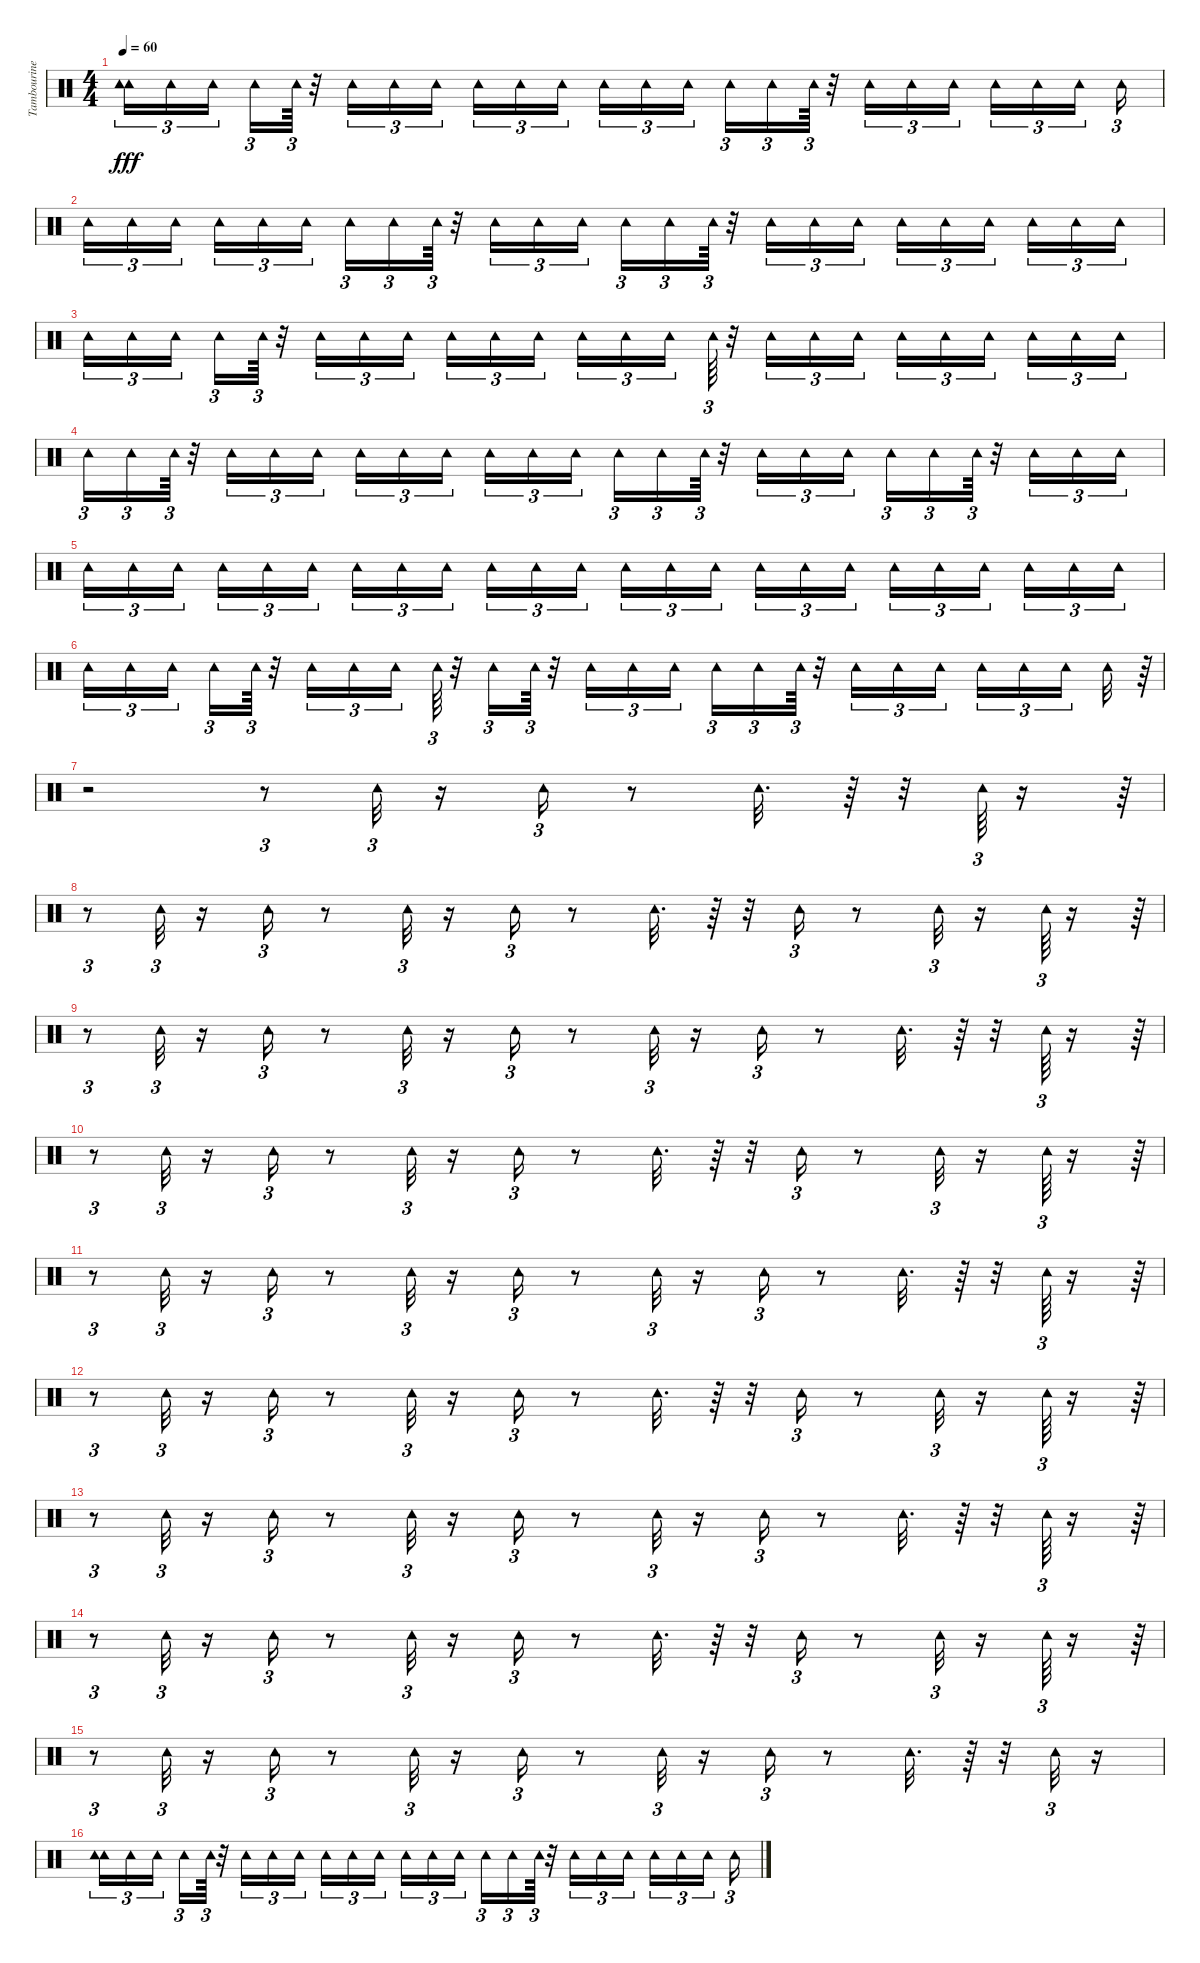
\track ("Tambourine" "Tambourine") {instrument percussion}
\staff {score}
\articulation defaults
\ts (4 4)
\tempo 60
\clef neutral
\ks c
("Tambourine (hit)" "Tambourine (hit)").16{tu (3 2) dy fff} "Tambourine (hit)".16{tu (3 2)} "Tambourine (hit)".16{tu (3 2) beam splitsecondary} "Tambourine (hit)".16{tu (3 2)} "Tambourine (hit)".64{tu (3 2)} r.32 "Tambourine (hit)".16{tu (3 2)} "Tambourine (hit)".16{tu (3 2)} "Tambourine (hit)".16{tu (3 2) beam splitsecondary} "Tambourine (hit)".16{tu (3 2)} "Tambourine (hit)".16{tu (3 2)} "Tambourine (hit)".16{tu (3 2) beam splitsecondary} "Tambourine (hit)".16{tu (3 2)} "Tambourine (hit)".16{tu (3 2)} "Tambourine (hit)".16{tu (3 2) beam splitsecondary} "Tambourine (hit)".16{tu (3 2)} "Tambourine (hit)".16{tu (3 2)} "Tambourine (hit)".64{tu (3 2)} r.32 "Tambourine (hit)".16{tu (3 2)} "Tambourine (hit)".16{tu (3 2)} "Tambourine (hit)".16{tu (3 2) beam splitsecondary} "Tambourine (hit)".16{tu (3 2)} "Tambourine (hit)".16{tu (3 2)} "Tambourine (hit)".16{tu (3 2) beam splitsecondary} "Tambourine (hit)".16{tu (3 2)} |
"Tambourine (hit)".16{tu (3 2)} "Tambourine (hit)".16{tu (3 2)} "Tambourine (hit)".16{tu (3 2) beam splitsecondary} "Tambourine (hit)".16{tu (3 2)} "Tambourine (hit)".16{tu (3 2)} "Tambourine (hit)".16{tu (3 2)} "Tambourine (hit)".16{tu (3 2)} "Tambourine (hit)".16{tu (3 2)} "Tambourine (hit)".64{tu (3 2)} r.32 "Tambourine (hit)".16{tu (3 2)} "Tambourine (hit)".16{tu (3 2)} "Tambourine (hit)".16{tu (3 2)} "Tambourine (hit)".16{tu (3 2)} "Tambourine (hit)".16{tu (3 2)} "Tambourine (hit)".64{tu (3 2)} r.32 "Tambourine (hit)".16{tu (3 2)} "Tambourine (hit)".16{tu (3 2)} "Tambourine (hit)".16{tu (3 2)} "Tambourine (hit)".16{tu (3 2)} "Tambourine (hit)".16{tu (3 2)} "Tambourine (hit)".16{tu (3 2) beam splitsecondary} "Tambourine (hit)".16{tu (3 2)} "Tambourine (hit)".16{tu (3 2)} "Tambourine (hit)".16{tu (3 2)} |
"Tambourine (hit)".16{tu (3 2)} "Tambourine (hit)".16{tu (3 2)} "Tambourine (hit)".16{tu (3 2) beam splitsecondary} "Tambourine (hit)".16{tu (3 2)} "Tambourine (hit)".64{tu (3 2)} r.32 "Tambourine (hit)".16{tu (3 2)} "Tambourine (hit)".16{tu (3 2)} "Tambourine (hit)".16{tu (3 2) beam splitsecondary} "Tambourine (hit)".16{tu (3 2)} "Tambourine (hit)".16{tu (3 2)} "Tambourine (hit)".16{tu (3 2) beam splitsecondary} "Tambourine (hit)".16{tu (3 2)} "Tambourine (hit)".16{tu (3 2)} "Tambourine (hit)".16{tu (3 2) beam splitsecondary} "Tambourine (hit)".64{tu (3 2)} r.32 "Tambourine (hit)".16{tu (3 2)} "Tambourine (hit)".16{tu (3 2)} "Tambourine (hit)".16{tu (3 2)} "Tambourine (hit)".16{tu (3 2)} "Tambourine (hit)".16{tu (3 2)} "Tambourine (hit)".16{tu (3 2) beam splitsecondary} "Tambourine (hit)".16{tu (3 2)} "Tambourine (hit)".16{tu (3 2)} "Tambourine (hit)".16{tu (3 2)} |
"Tambourine (hit)".16{tu (3 2)} "Tambourine (hit)".16{tu (3 2)} "Tambourine (hit)".64{tu (3 2)} r.32 "Tambourine (hit)".16{tu (3 2)} "Tambourine (hit)".16{tu (3 2)} "Tambourine (hit)".16{tu (3 2)} "Tambourine (hit)".16{tu (3 2)} "Tambourine (hit)".16{tu (3 2)} "Tambourine (hit)".16{tu (3 2) beam splitsecondary} "Tambourine (hit)".16{tu (3 2)} "Tambourine (hit)".16{tu (3 2)} "Tambourine (hit)".16{tu (3 2)} "Tambourine (hit)".16{tu (3 2)} "Tambourine (hit)".16{tu (3 2)} "Tambourine (hit)".64{tu (3 2)} r.32 "Tambourine (hit)".16{tu (3 2)} "Tambourine (hit)".16{tu (3 2)} "Tambourine (hit)".16{tu (3 2)} "Tambourine (hit)".16{tu (3 2)} "Tambourine (hit)".16{tu (3 2)} "Tambourine (hit)".64{tu (3 2)} r.32 "Tambourine (hit)".16{tu (3 2)} "Tambourine (hit)".16{tu (3 2)} "Tambourine (hit)".16{tu (3 2)} |
"Tambourine (hit)".16{tu (3 2)} "Tambourine (hit)".16{tu (3 2)} "Tambourine (hit)".16{tu (3 2) beam splitsecondary} "Tambourine (hit)".16{tu (3 2)} "Tambourine (hit)".16{tu (3 2)} "Tambourine (hit)".16{tu (3 2)} "Tambourine (hit)".16{tu (3 2)} "Tambourine (hit)".16{tu (3 2)} "Tambourine (hit)".16{tu (3 2) beam splitsecondary} "Tambourine (hit)".16{tu (3 2)} "Tambourine (hit)".16{tu (3 2)} "Tambourine (hit)".16{tu (3 2)} "Tambourine (hit)".16{tu (3 2)} "Tambourine (hit)".16{tu (3 2)} "Tambourine (hit)".16{tu (3 2) beam splitsecondary} "Tambourine (hit)".16{tu (3 2)} "Tambourine (hit)".16{tu (3 2)} "Tambourine (hit)".16{tu (3 2)} "Tambourine (hit)".16{tu (3 2)} "Tambourine (hit)".16{tu (3 2)} "Tambourine (hit)".16{tu (3 2) beam splitsecondary} "Tambourine (hit)".16{tu (3 2)} "Tambourine (hit)".16{tu (3 2)} "Tambourine (hit)".16{tu (3 2)} |
"Tambourine (hit)".16{tu (3 2)} "Tambourine (hit)".16{tu (3 2)} "Tambourine (hit)".16{tu (3 2) beam splitsecondary} "Tambourine (hit)".16{tu (3 2)} "Tambourine (hit)".64{tu (3 2)} r.32 "Tambourine (hit)".16{tu (3 2)} "Tambourine (hit)".16{tu (3 2)} "Tambourine (hit)".16{tu (3 2) beam splitsecondary} "Tambourine (hit)".64{tu (3 2)} r.32 "Tambourine (hit)".16{tu (3 2)} "Tambourine (hit)".64{tu (3 2)} r.32 "Tambourine (hit)".16{tu (3 2)} "Tambourine (hit)".16{tu (3 2)} "Tambourine (hit)".16{tu (3 2) beam splitsecondary} "Tambourine (hit)".16{tu (3 2)} "Tambourine (hit)".16{tu (3 2)} "Tambourine (hit)".64{tu (3 2)} r.32 "Tambourine (hit)".16{tu (3 2)} "Tambourine (hit)".16{tu (3 2)} "Tambourine (hit)".16{tu (3 2) beam splitsecondary} "Tambourine (hit)".16{tu (3 2)} "Tambourine (hit)".16{tu (3 2)} "Tambourine (hit)".16{tu (3 2) beam splitsecondary} "Tambourine (hit)".32 r.64{tu (3 2)} |
r.2 r.8{tu (3 2)} "Tambourine (hit)".32{tu (3 2)} r.16 "Tambourine (hit)".16{tu (3 2)} r.8 "Tambourine (hit)".32{d} r.64 r.32 "Tambourine (hit)".64{tu (3 2)} r.16 r.64{tu (3 2)} |
r.8{tu (3 2)} "Tambourine (hit)".32{tu (3 2)} r.16 "Tambourine (hit)".16{tu (3 2)} r.8 "Tambourine (hit)".32{tu (3 2)} r.16 "Tambourine (hit)".16{tu (3 2)} r.8 "Tambourine (hit)".32{d} r.64 r.32 "Tambourine (hit)".16{tu (3 2)} r.8 "Tambourine (hit)".32{tu (3 2)} r.16 "Tambourine (hit)".64{tu (3 2)} r.16 r.64{tu (3 2)} |
r.8{tu (3 2)} "Tambourine (hit)".32{tu (3 2)} r.16 "Tambourine (hit)".16{tu (3 2)} r.8 "Tambourine (hit)".32{tu (3 2)} r.16 "Tambourine (hit)".16{tu (3 2)} r.8 "Tambourine (hit)".32{tu (3 2)} r.16 "Tambourine (hit)".16{tu (3 2)} r.8 "Tambourine (hit)".32{d} r.64 r.32 "Tambourine (hit)".64{tu (3 2)} r.16 r.64{tu (3 2)} |
r.8{tu (3 2)} "Tambourine (hit)".32{tu (3 2)} r.16 "Tambourine (hit)".16{tu (3 2)} r.8 "Tambourine (hit)".32{tu (3 2)} r.16 "Tambourine (hit)".16{tu (3 2)} r.8 "Tambourine (hit)".32{d} r.64 r.32 "Tambourine (hit)".16{tu (3 2)} r.8 "Tambourine (hit)".32{tu (3 2)} r.16 "Tambourine (hit)".64{tu (3 2)} r.16 r.64{tu (3 2)} |
r.8{tu (3 2)} "Tambourine (hit)".32{tu (3 2)} r.16 "Tambourine (hit)".16{tu (3 2)} r.8 "Tambourine (hit)".32{tu (3 2)} r.16 "Tambourine (hit)".16{tu (3 2)} r.8 "Tambourine (hit)".32{tu (3 2)} r.16 "Tambourine (hit)".16{tu (3 2)} r.8 "Tambourine (hit)".32{d} r.64 r.32 "Tambourine (hit)".64{tu (3 2)} r.16 r.64{tu (3 2)} |
r.8{tu (3 2)} "Tambourine (hit)".32{tu (3 2)} r.16 "Tambourine (hit)".16{tu (3 2)} r.8 "Tambourine (hit)".32{tu (3 2)} r.16 "Tambourine (hit)".16{tu (3 2)} r.8 "Tambourine (hit)".32{d} r.64 r.32 "Tambourine (hit)".16{tu (3 2)} r.8 "Tambourine (hit)".32{tu (3 2)} r.16 "Tambourine (hit)".64{tu (3 2)} r.16 r.64{tu (3 2)} |
r.8{tu (3 2)} "Tambourine (hit)".32{tu (3 2)} r.16 "Tambourine (hit)".16{tu (3 2)} r.8 "Tambourine (hit)".32{tu (3 2)} r.16 "Tambourine (hit)".16{tu (3 2)} r.8 "Tambourine (hit)".32{tu (3 2)} r.16 "Tambourine (hit)".16{tu (3 2)} r.8 "Tambourine (hit)".32{d} r.64 r.32 "Tambourine (hit)".64{tu (3 2)} r.16 r.64{tu (3 2)} |
r.8{tu (3 2)} "Tambourine (hit)".32{tu (3 2)} r.16 "Tambourine (hit)".16{tu (3 2)} r.8 "Tambourine (hit)".32{tu (3 2)} r.16 "Tambourine (hit)".16{tu (3 2)} r.8 "Tambourine (hit)".32{d} r.64 r.32 "Tambourine (hit)".16{tu (3 2)} r.8 "Tambourine (hit)".32{tu (3 2)} r.16 "Tambourine (hit)".64{tu (3 2)} r.16 r.64{tu (3 2)} |
r.8{tu (3 2)} "Tambourine (hit)".32{tu (3 2)} r.16 "Tambourine (hit)".16{tu (3 2)} r.8 "Tambourine (hit)".32{tu (3 2)} r.16 "Tambourine (hit)".16{tu (3 2)} r.8 "Tambourine (hit)".32{tu (3 2)} r.16 "Tambourine (hit)".16{tu (3 2)} r.8 "Tambourine (hit)".32{d} r.64 r.32 "Tambourine (hit)".32{tu (3 2)} r.16 |
("Tambourine (hit)" "Tambourine (hit)").16{tu (3 2)} "Tambourine (hit)".16{tu (3 2)} "Tambourine (hit)".16{tu (3 2) beam splitsecondary} "Tambourine (hit)".16{tu (3 2)} "Tambourine (hit)".64{tu (3 2)} r.32 "Tambourine (hit)".16{tu (3 2)} "Tambourine (hit)".16{tu (3 2)} "Tambourine (hit)".16{tu (3 2) beam splitsecondary} "Tambourine (hit)".16{tu (3 2)} "Tambourine (hit)".16{tu (3 2)} "Tambourine (hit)".16{tu (3 2) beam splitsecondary} "Tambourine (hit)".16{tu (3 2)} "Tambourine (hit)".16{tu (3 2)} "Tambourine (hit)".16{tu (3 2) beam splitsecondary} "Tambourine (hit)".16{tu (3 2)} "Tambourine (hit)".16{tu (3 2)} "Tambourine (hit)".64{tu (3 2)} r.32 "Tambourine (hit)".16{tu (3 2)} "Tambourine (hit)".16{tu (3 2)} "Tambourine (hit)".16{tu (3 2) beam splitsecondary} "Tambourine (hit)".16{tu (3 2)} "Tambourine (hit)".16{tu (3 2)} "Tambourine (hit)".16{tu (3 2) beam splitsecondary} "Tambourine (hit)".16{tu (3 2)}
